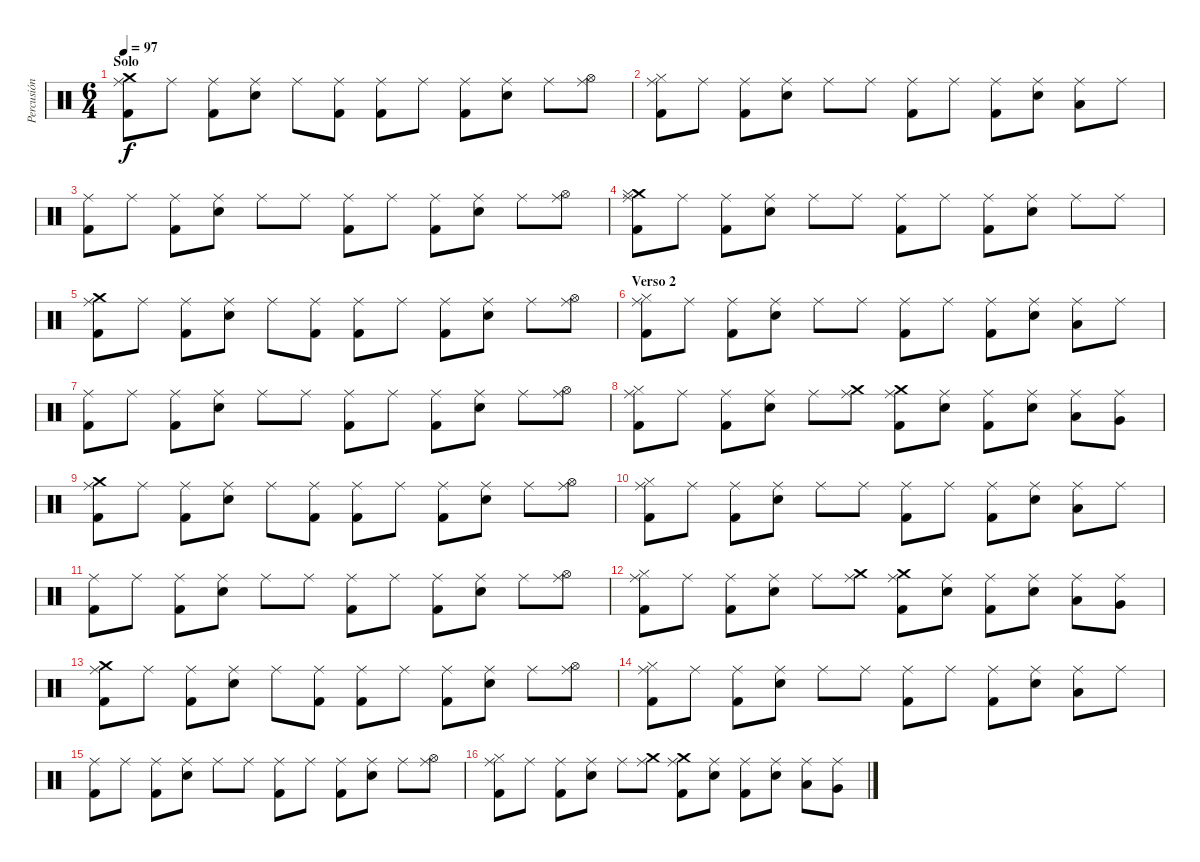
\track ("Percusión" "Percusión") {instrument percussion}
\staff {score}
\articulation defaults
\ts (6 4)
\section ("" "Solo")
\tempo 97
\clef neutral
\ks c
("Crash medium (hit)" "Ride (middle)" "Kick (hit) 2").8{dy f} "Ride (middle)".8 ("Ride (middle)" "Kick (hit) 2").8 ("Ride (middle)" "Electric Snare (hit)").8 "Ride (middle)".8 ("Ride (middle)" "Kick (hit) 2").8 ("Ride (middle)" "Kick (hit) 2").8 "Ride (middle)".8 ("Ride (middle)" "Kick (hit) 2").8 ("Ride (middle)" "Electric Snare (hit)").8 "Ride (middle)".8 ("Ride (middle)" "Hi-Hat (open)").8 |
("Ride (middle)" "Kick (hit) 2" "Hi-Hat (closed)").8 "Ride (middle)".8 ("Ride (middle)" "Kick (hit) 2").8 ("Ride (middle)" "Electric Snare (hit)").8 "Ride (middle)".8 "Ride (middle)".8 ("Ride (middle)" "Kick (hit) 2").8 "Ride (middle)".8 ("Ride (middle)" "Kick (hit) 2").8 ("Ride (middle)" "Electric Snare (hit)").8 ("Ride (middle)" "Low Floor Tom (hit)").8 "Ride (middle)".8 |
("Ride (middle)" "Kick (hit) 2").8 "Ride (middle)".8 ("Ride (middle)" "Kick (hit) 2").8 ("Ride (middle)" "Electric Snare (hit)").8 "Ride (middle)".8 "Ride (middle)".8 ("Ride (middle)" "Kick (hit) 2").8 "Ride (middle)".8 ("Ride (middle)" "Kick (hit) 2").8 ("Ride (middle)" "Electric Snare (hit)").8 "Ride (middle)".8 ("Ride (middle)" "Hi-Hat (open)").8 |
("Crash medium (hit)" "Ride (middle)" "Hi-Hat (closed)" "Kick (hit) 2").8 "Ride (middle)".8 ("Ride (middle)" "Kick (hit) 2").8 ("Ride (middle)" "Electric Snare (hit)").8 "Ride (middle)".8 "Ride (middle)".8 ("Ride (middle)" "Kick (hit) 2").8 "Ride (middle)".8 ("Ride (middle)" "Kick (hit) 2").8 ("Ride (middle)" "Electric Snare (hit)").8 "Ride (middle)".8 "Ride (middle)".8 |
("Crash medium (hit)" "Ride (middle)" "Kick (hit) 2").8 "Ride (middle)".8 ("Ride (middle)" "Kick (hit) 2").8 ("Ride (middle)" "Electric Snare (hit)").8 "Ride (middle)".8 ("Ride (middle)" "Kick (hit) 2").8 ("Ride (middle)" "Kick (hit) 2").8 "Ride (middle)".8 ("Ride (middle)" "Kick (hit) 2").8 ("Ride (middle)" "Electric Snare (hit)").8 "Ride (middle)".8 ("Ride (middle)" "Hi-Hat (open)").8 |
\section ("" "Verso 2")
("Ride (middle)" "Kick (hit) 2" "Hi-Hat (closed)").8 "Ride (middle)".8 ("Ride (middle)" "Kick (hit) 2").8 ("Ride (middle)" "Electric Snare (hit)").8 "Ride (middle)".8 "Ride (middle)".8 ("Ride (middle)" "Kick (hit) 2").8 "Ride (middle)".8 ("Ride (middle)" "Kick (hit) 2").8 ("Ride (middle)" "Electric Snare (hit)").8 ("Ride (middle)" "Low Floor Tom (hit)").8 "Ride (middle)".8 |
("Ride (middle)" "Kick (hit) 2").8 "Ride (middle)".8 ("Ride (middle)" "Kick (hit) 2").8 ("Ride (middle)" "Electric Snare (hit)").8 "Ride (middle)".8 "Ride (middle)".8 ("Ride (middle)" "Kick (hit) 2").8 "Ride (middle)".8 ("Ride (middle)" "Kick (hit) 2").8 ("Ride (middle)" "Electric Snare (hit)").8 "Ride (middle)".8 ("Ride (middle)" "Hi-Hat (open)").8 |
("Ride (middle)" "Hi-Hat (closed)" "Kick (hit) 2").8 "Ride (middle)".8 ("Ride (middle)" "Kick (hit) 2").8 ("Ride (middle)" "Electric Snare (hit)").8 "Ride (middle)".8 ("Ride (middle)" "Crash medium (hit)").8 ("Ride (middle)" "Crash medium (hit)" "Kick (hit) 2").8 ("Ride (middle)" "Electric Snare (hit)").8 ("Ride (middle)" "Kick (hit) 2").8 ("Ride (middle)" "Electric Snare (hit)").8 ("Ride (middle)" "Low Floor Tom (hit)").8 ("Ride (middle)" "Very Low Tom (hit)").8 |
("Crash medium (hit)" "Ride (middle)" "Kick (hit) 2").8 "Ride (middle)".8 ("Ride (middle)" "Kick (hit) 2").8 ("Ride (middle)" "Electric Snare (hit)").8 "Ride (middle)".8 ("Ride (middle)" "Kick (hit) 2").8 ("Ride (middle)" "Kick (hit) 2").8 "Ride (middle)".8 ("Ride (middle)" "Kick (hit) 2").8 ("Ride (middle)" "Electric Snare (hit)").8 "Ride (middle)".8 ("Ride (middle)" "Hi-Hat (open)").8 |
("Ride (middle)" "Kick (hit) 2" "Hi-Hat (closed)").8 "Ride (middle)".8 ("Ride (middle)" "Kick (hit) 2").8 ("Ride (middle)" "Electric Snare (hit)").8 "Ride (middle)".8 "Ride (middle)".8 ("Ride (middle)" "Kick (hit) 2").8 "Ride (middle)".8 ("Ride (middle)" "Kick (hit) 2").8 ("Ride (middle)" "Electric Snare (hit)").8 ("Ride (middle)" "Low Floor Tom (hit)").8 "Ride (middle)".8 |
("Ride (middle)" "Kick (hit) 2").8 "Ride (middle)".8 ("Ride (middle)" "Kick (hit) 2").8 ("Ride (middle)" "Electric Snare (hit)").8 "Ride (middle)".8 "Ride (middle)".8 ("Ride (middle)" "Kick (hit) 2").8 "Ride (middle)".8 ("Ride (middle)" "Kick (hit) 2").8 ("Ride (middle)" "Electric Snare (hit)").8 "Ride (middle)".8 ("Ride (middle)" "Hi-Hat (open)").8 |
("Ride (middle)" "Hi-Hat (closed)" "Kick (hit) 2").8 "Ride (middle)".8 ("Ride (middle)" "Kick (hit) 2").8 ("Ride (middle)" "Electric Snare (hit)").8 "Ride (middle)".8 ("Ride (middle)" "Crash medium (hit)").8 ("Ride (middle)" "Crash medium (hit)" "Kick (hit) 2").8 ("Ride (middle)" "Electric Snare (hit)").8 ("Ride (middle)" "Kick (hit) 2").8 ("Ride (middle)" "Electric Snare (hit)").8 ("Ride (middle)" "Low Floor Tom (hit)").8 ("Ride (middle)" "Very Low Tom (hit)").8 |
("Crash medium (hit)" "Ride (middle)" "Kick (hit) 2").8 "Ride (middle)".8 ("Ride (middle)" "Kick (hit) 2").8 ("Ride (middle)" "Electric Snare (hit)").8 "Ride (middle)".8 ("Ride (middle)" "Kick (hit) 2").8 ("Ride (middle)" "Kick (hit) 2").8 "Ride (middle)".8 ("Ride (middle)" "Kick (hit) 2").8 ("Ride (middle)" "Electric Snare (hit)").8 "Ride (middle)".8 ("Ride (middle)" "Hi-Hat (open)").8 |
("Ride (middle)" "Kick (hit) 2" "Hi-Hat (closed)").8 "Ride (middle)".8 ("Ride (middle)" "Kick (hit) 2").8 ("Ride (middle)" "Electric Snare (hit)").8 "Ride (middle)".8 "Ride (middle)".8 ("Ride (middle)" "Kick (hit) 2").8 "Ride (middle)".8 ("Ride (middle)" "Kick (hit) 2").8 ("Ride (middle)" "Electric Snare (hit)").8 ("Ride (middle)" "Low Floor Tom (hit)").8 "Ride (middle)".8 |
("Ride (middle)" "Kick (hit) 2").8 "Ride (middle)".8 ("Ride (middle)" "Kick (hit) 2").8 ("Ride (middle)" "Electric Snare (hit)").8 "Ride (middle)".8 "Ride (middle)".8 ("Ride (middle)" "Kick (hit) 2").8 "Ride (middle)".8 ("Ride (middle)" "Kick (hit) 2").8 ("Ride (middle)" "Electric Snare (hit)").8 "Ride (middle)".8 ("Ride (middle)" "Hi-Hat (open)").8 |
("Ride (middle)" "Hi-Hat (closed)" "Kick (hit) 2").8 "Ride (middle)".8 ("Ride (middle)" "Kick (hit) 2").8 ("Ride (middle)" "Electric Snare (hit)").8 "Ride (middle)".8 ("Ride (middle)" "Crash medium (hit)").8 ("Ride (middle)" "Crash medium (hit)" "Kick (hit) 2").8 ("Ride (middle)" "Electric Snare (hit)").8 ("Ride (middle)" "Kick (hit) 2").8 ("Ride (middle)" "Electric Snare (hit)").8 ("Ride (middle)" "Low Floor Tom (hit)").8 ("Ride (middle)" "Very Low Tom (hit)").8
